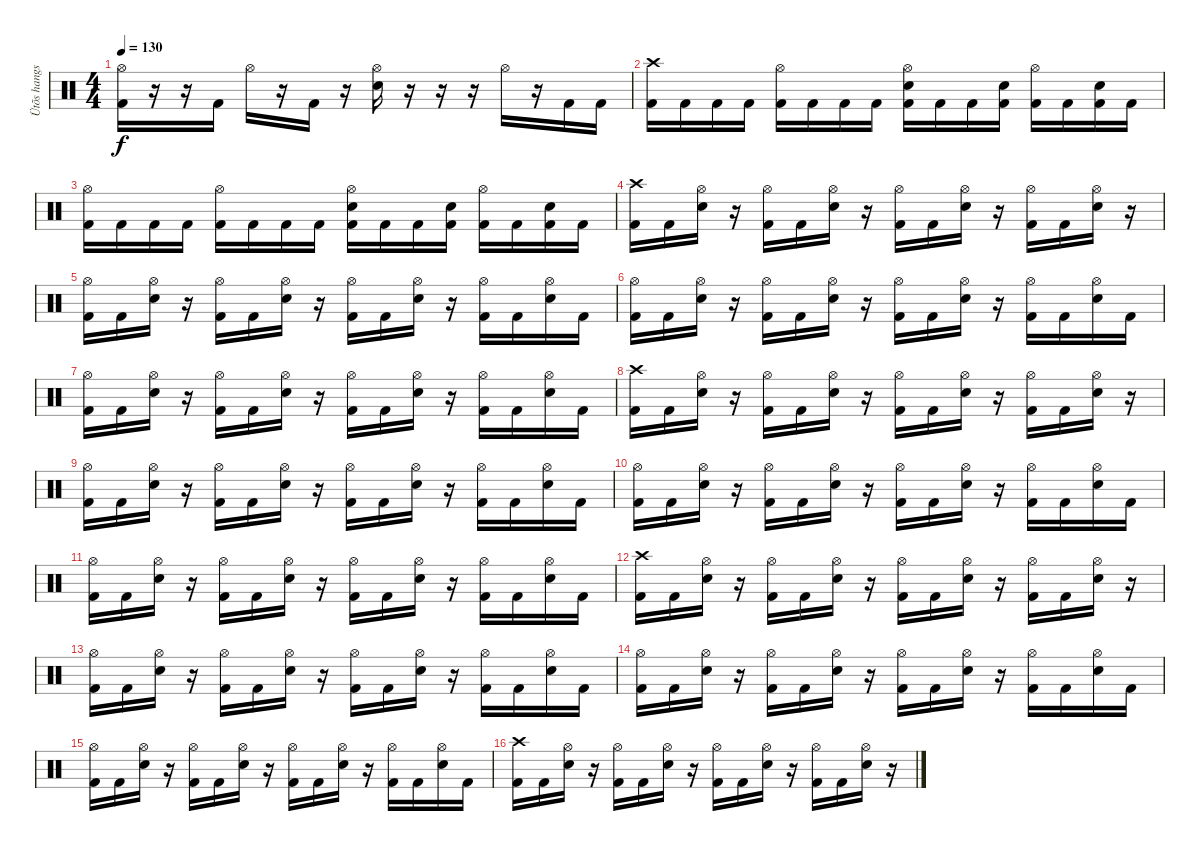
\track ("Ütõs hangszer" "Ütõs hangs") {instrument percussion}
\staff {score}
\articulation defaults
\ts (4 4)
\tempo 130
\clef neutral
\ks c
("Hi-Hat (open)" "Kick (hit) 2").16{dy f} r.16 r.16 "Kick (hit) 2".16 "Hi-Hat (open)".16 r.16 "Kick (hit) 2".16 r.16 ("Hi-Hat (open)" "Snare (hit) 2").16 r.16 r.16 r.16 "Hi-Hat (open)".16 r.16 "Kick (hit) 2".16 "Kick (hit) 2".16 |
("Crash high (hit)" "Kick (hit) 2").16 "Kick (hit) 2".16 "Kick (hit) 2".16 "Kick (hit) 2".16 ("Hi-Hat (open)" "Kick (hit) 2").16 "Kick (hit) 2".16 "Kick (hit) 2".16 "Kick (hit) 2".16 ("Hi-Hat (open)" "Snare (hit) 2" "Kick (hit) 2").16 "Kick (hit) 2".16 "Kick (hit) 2".16 ("Snare (hit) 2" "Kick (hit) 2").16 ("Hi-Hat (open)" "Kick (hit) 2").16 "Kick (hit) 2".16 ("Snare (hit) 2" "Kick (hit) 2").16 "Kick (hit) 2".16 |
("Hi-Hat (open)" "Kick (hit) 2").16 "Kick (hit) 2".16 "Kick (hit) 2".16 "Kick (hit) 2".16 ("Hi-Hat (open)" "Kick (hit) 2").16 "Kick (hit) 2".16 "Kick (hit) 2".16 "Kick (hit) 2".16 ("Hi-Hat (open)" "Snare (hit) 2" "Kick (hit) 2").16 "Kick (hit) 2".16 "Kick (hit) 2".16 ("Snare (hit) 2" "Kick (hit) 2").16 ("Hi-Hat (open)" "Kick (hit) 2").16 "Kick (hit) 2".16 ("Snare (hit) 2" "Kick (hit) 2").16 "Kick (hit) 2".16 |
("Crash high (hit)" "Kick (hit) 2").16 "Kick (hit) 2".16 ("Hi-Hat (open)" "Snare (hit) 2").16 r.16 ("Hi-Hat (open)" "Kick (hit) 2").16 "Kick (hit) 2".16 ("Hi-Hat (open)" "Snare (hit) 2").16 r.16 ("Hi-Hat (open)" "Kick (hit) 2").16 "Kick (hit) 2".16 ("Hi-Hat (open)" "Snare (hit) 2").16 r.16 ("Hi-Hat (open)" "Kick (hit) 2").16 "Kick (hit) 2".16 ("Hi-Hat (open)" "Snare (hit) 2").16 r.16 |
("Hi-Hat (open)" "Kick (hit) 2").16 "Kick (hit) 2".16 ("Hi-Hat (open)" "Snare (hit) 2").16 r.16 ("Hi-Hat (open)" "Kick (hit) 2").16 "Kick (hit) 2".16 ("Hi-Hat (open)" "Snare (hit) 2").16 r.16 ("Hi-Hat (open)" "Kick (hit) 2").16 "Kick (hit) 2".16 ("Hi-Hat (open)" "Snare (hit) 2").16 r.16 ("Hi-Hat (open)" "Kick (hit) 2").16 "Kick (hit) 2".16 ("Hi-Hat (open)" "Snare (hit) 2").16 "Kick (hit) 2".16 |
("Hi-Hat (open)" "Kick (hit) 2").16 "Kick (hit) 2".16 ("Hi-Hat (open)" "Snare (hit) 2").16 r.16 ("Hi-Hat (open)" "Kick (hit) 2").16 "Kick (hit) 2".16 ("Hi-Hat (open)" "Snare (hit) 2").16 r.16 ("Hi-Hat (open)" "Kick (hit) 2").16 "Kick (hit) 2".16 ("Hi-Hat (open)" "Snare (hit) 2").16 r.16 ("Hi-Hat (open)" "Kick (hit) 2").16 "Kick (hit) 2".16 ("Hi-Hat (open)" "Snare (hit) 2").16 "Kick (hit) 2".16 |
("Hi-Hat (open)" "Kick (hit) 2").16 "Kick (hit) 2".16 ("Hi-Hat (open)" "Snare (hit) 2").16 r.16 ("Hi-Hat (open)" "Kick (hit) 2").16 "Kick (hit) 2".16 ("Hi-Hat (open)" "Snare (hit) 2").16 r.16 ("Hi-Hat (open)" "Kick (hit) 2").16 "Kick (hit) 2".16 ("Hi-Hat (open)" "Snare (hit) 2").16 r.16 ("Hi-Hat (open)" "Kick (hit) 2").16 "Kick (hit) 2".16 ("Hi-Hat (open)" "Snare (hit) 2").16 "Kick (hit) 2".16 |
("Crash high (hit)" "Kick (hit) 2").16 "Kick (hit) 2".16 ("Hi-Hat (open)" "Snare (hit) 2").16 r.16 ("Hi-Hat (open)" "Kick (hit) 2").16 "Kick (hit) 2".16 ("Hi-Hat (open)" "Snare (hit) 2").16 r.16 ("Hi-Hat (open)" "Kick (hit) 2").16 "Kick (hit) 2".16 ("Hi-Hat (open)" "Snare (hit) 2").16 r.16 ("Hi-Hat (open)" "Kick (hit) 2").16 "Kick (hit) 2".16 ("Hi-Hat (open)" "Snare (hit) 2").16 r.16 |
("Hi-Hat (open)" "Kick (hit) 2").16 "Kick (hit) 2".16 ("Hi-Hat (open)" "Snare (hit) 2").16 r.16 ("Hi-Hat (open)" "Kick (hit) 2").16 "Kick (hit) 2".16 ("Hi-Hat (open)" "Snare (hit) 2").16 r.16 ("Hi-Hat (open)" "Kick (hit) 2").16 "Kick (hit) 2".16 ("Hi-Hat (open)" "Snare (hit) 2").16 r.16 ("Hi-Hat (open)" "Kick (hit) 2").16 "Kick (hit) 2".16 ("Hi-Hat (open)" "Snare (hit) 2").16 "Kick (hit) 2".16 |
("Hi-Hat (open)" "Kick (hit) 2").16 "Kick (hit) 2".16 ("Hi-Hat (open)" "Snare (hit) 2").16 r.16 ("Hi-Hat (open)" "Kick (hit) 2").16 "Kick (hit) 2".16 ("Hi-Hat (open)" "Snare (hit) 2").16 r.16 ("Hi-Hat (open)" "Kick (hit) 2").16 "Kick (hit) 2".16 ("Hi-Hat (open)" "Snare (hit) 2").16 r.16 ("Hi-Hat (open)" "Kick (hit) 2").16 "Kick (hit) 2".16 ("Hi-Hat (open)" "Snare (hit) 2").16 "Kick (hit) 2".16 |
("Hi-Hat (open)" "Kick (hit) 2").16 "Kick (hit) 2".16 ("Hi-Hat (open)" "Snare (hit) 2").16 r.16 ("Hi-Hat (open)" "Kick (hit) 2").16 "Kick (hit) 2".16 ("Hi-Hat (open)" "Snare (hit) 2").16 r.16 ("Hi-Hat (open)" "Kick (hit) 2").16 "Kick (hit) 2".16 ("Hi-Hat (open)" "Snare (hit) 2").16 r.16 ("Hi-Hat (open)" "Kick (hit) 2").16 "Kick (hit) 2".16 ("Hi-Hat (open)" "Snare (hit) 2").16 "Kick (hit) 2".16 |
("Crash high (hit)" "Kick (hit) 2").16 "Kick (hit) 2".16 ("Hi-Hat (open)" "Snare (hit) 2").16 r.16 ("Hi-Hat (open)" "Kick (hit) 2").16 "Kick (hit) 2".16 ("Hi-Hat (open)" "Snare (hit) 2").16 r.16 ("Hi-Hat (open)" "Kick (hit) 2").16 "Kick (hit) 2".16 ("Hi-Hat (open)" "Snare (hit) 2").16 r.16 ("Hi-Hat (open)" "Kick (hit) 2").16 "Kick (hit) 2".16 ("Hi-Hat (open)" "Snare (hit) 2").16 r.16 |
("Hi-Hat (open)" "Kick (hit) 2").16 "Kick (hit) 2".16 ("Hi-Hat (open)" "Snare (hit) 2").16 r.16 ("Hi-Hat (open)" "Kick (hit) 2").16 "Kick (hit) 2".16 ("Hi-Hat (open)" "Snare (hit) 2").16 r.16 ("Hi-Hat (open)" "Kick (hit) 2").16 "Kick (hit) 2".16 ("Hi-Hat (open)" "Snare (hit) 2").16 r.16 ("Hi-Hat (open)" "Kick (hit) 2").16 "Kick (hit) 2".16 ("Hi-Hat (open)" "Snare (hit) 2").16 "Kick (hit) 2".16 |
("Hi-Hat (open)" "Kick (hit) 2").16 "Kick (hit) 2".16 ("Hi-Hat (open)" "Snare (hit) 2").16 r.16 ("Hi-Hat (open)" "Kick (hit) 2").16 "Kick (hit) 2".16 ("Hi-Hat (open)" "Snare (hit) 2").16 r.16 ("Hi-Hat (open)" "Kick (hit) 2").16 "Kick (hit) 2".16 ("Hi-Hat (open)" "Snare (hit) 2").16 r.16 ("Hi-Hat (open)" "Kick (hit) 2").16 "Kick (hit) 2".16 ("Hi-Hat (open)" "Snare (hit) 2").16 "Kick (hit) 2".16 |
("Hi-Hat (open)" "Kick (hit) 2").16 "Kick (hit) 2".16 ("Hi-Hat (open)" "Snare (hit) 2").16 r.16 ("Hi-Hat (open)" "Kick (hit) 2").16 "Kick (hit) 2".16 ("Hi-Hat (open)" "Snare (hit) 2").16 r.16 ("Hi-Hat (open)" "Kick (hit) 2").16 "Kick (hit) 2".16 ("Hi-Hat (open)" "Snare (hit) 2").16 r.16 ("Hi-Hat (open)" "Kick (hit) 2").16 "Kick (hit) 2".16 ("Hi-Hat (open)" "Snare (hit) 2").16 "Kick (hit) 2".16 |
("Crash high (hit)" "Kick (hit) 2").16 "Kick (hit) 2".16 ("Hi-Hat (open)" "Snare (hit) 2").16 r.16 ("Hi-Hat (open)" "Kick (hit) 2").16 "Kick (hit) 2".16 ("Hi-Hat (open)" "Snare (hit) 2").16 r.16 ("Hi-Hat (open)" "Kick (hit) 2").16 "Kick (hit) 2".16 ("Hi-Hat (open)" "Snare (hit) 2").16 r.16 ("Hi-Hat (open)" "Kick (hit) 2").16 "Kick (hit) 2".16 ("Hi-Hat (open)" "Snare (hit) 2").16 r.16
